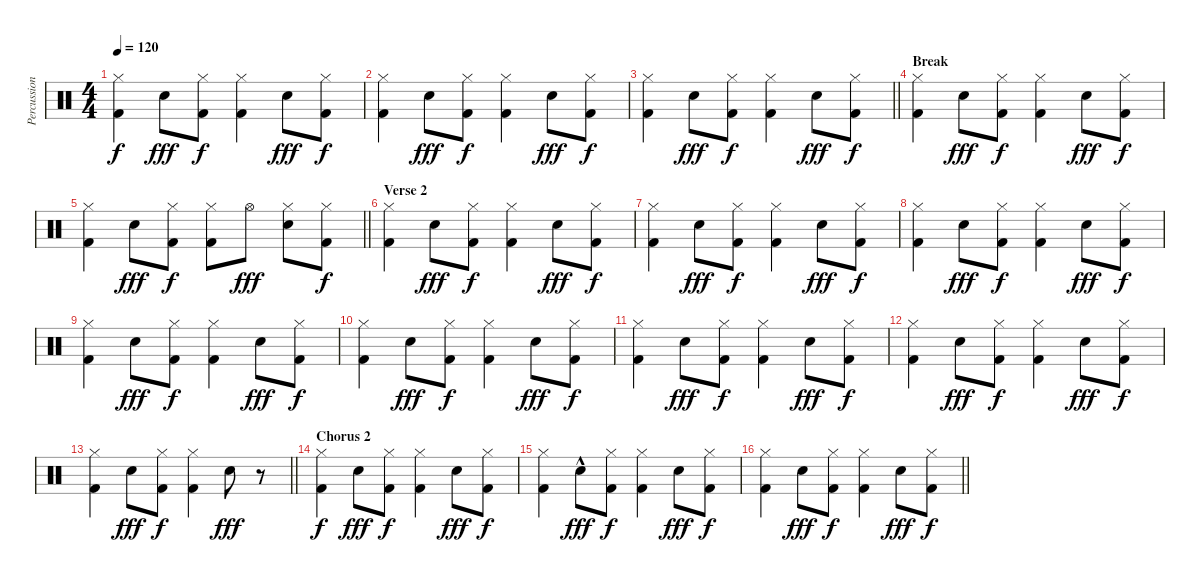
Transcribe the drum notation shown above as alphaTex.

\track ("Percussion" "Percussion") {instrument percussion}
\staff {score}
\articulation defaults
\ts (4 4)
\tempo 120
\clef neutral
\ks c
("Kick (hit) 2" "Hi-Hat (closed)").4{dy f} "Snare (hit) 2".8{dy fff} ("Kick (hit) 2" "Hi-Hat (closed)").8{dy f} ("Kick (hit) 2" "Hi-Hat (closed)").4 "Snare (hit) 2".8{dy fff} ("Kick (hit) 2" "Hi-Hat (closed)").8{dy f} |
("Kick (hit) 2" "Hi-Hat (closed)").4 "Snare (hit) 2".8{dy fff} ("Kick (hit) 2" "Hi-Hat (closed)").8{dy f} ("Kick (hit) 2" "Hi-Hat (closed)").4 "Snare (hit) 2".8{dy fff} ("Kick (hit) 2" "Hi-Hat (closed)").8{dy f} |
\barLineRight lightlight
("Kick (hit) 2" "Hi-Hat (closed)").4 "Snare (hit) 2".8{dy fff} ("Kick (hit) 2" "Hi-Hat (closed)").8{dy f} ("Kick (hit) 2" "Hi-Hat (closed)").4 "Snare (hit) 2".8{dy fff} ("Kick (hit) 2" "Hi-Hat (closed)").8{dy f} |
\section ("" "Break")
("Kick (hit) 2" "Hi-Hat (closed)").4 "Snare (hit) 2".8{dy fff} ("Kick (hit) 2" "Hi-Hat (closed)").8{dy f} ("Kick (hit) 2" "Hi-Hat (closed)").4 "Snare (hit) 2".8{dy fff} ("Kick (hit) 2" "Hi-Hat (closed)").8{dy f} |
\barLineRight lightlight
("Kick (hit) 2" "Hi-Hat (closed)").4 "Snare (hit) 2".8{dy fff} ("Kick (hit) 2" "Hi-Hat (closed)").8{dy f} ("Kick (hit) 2" "Hi-Hat (closed)").8 "Hi-Hat (open)".8{dy fff} ("Snare (hit) 2" "Hi-Hat (closed)").8 ("Kick (hit) 2" "Hi-Hat (closed)").8{dy f} |
\section ("" "Verse 2")
("Kick (hit) 2" "Hi-Hat (closed)").4 "Snare (hit) 2".8{dy fff} ("Kick (hit) 2" "Hi-Hat (closed)").8{dy f} ("Kick (hit) 2" "Hi-Hat (closed)").4 "Snare (hit) 2".8{dy fff} ("Kick (hit) 2" "Hi-Hat (closed)").8{dy f} |
("Kick (hit) 2" "Hi-Hat (closed)").4 "Snare (hit) 2".8{dy fff} ("Kick (hit) 2" "Hi-Hat (closed)").8{dy f} ("Kick (hit) 2" "Hi-Hat (closed)").4 "Snare (hit) 2".8{dy fff} ("Kick (hit) 2" "Hi-Hat (closed)").8{dy f} |
("Kick (hit) 2" "Hi-Hat (closed)").4 "Snare (hit) 2".8{dy fff} ("Kick (hit) 2" "Hi-Hat (closed)").8{dy f} ("Kick (hit) 2" "Hi-Hat (closed)").4 "Snare (hit) 2".8{dy fff} ("Kick (hit) 2" "Hi-Hat (closed)").8{dy f} |
("Kick (hit) 2" "Hi-Hat (closed)").4 "Snare (hit) 2".8{dy fff} ("Kick (hit) 2" "Hi-Hat (closed)").8{dy f} ("Kick (hit) 2" "Hi-Hat (closed)").4 "Snare (hit) 2".8{dy fff} ("Kick (hit) 2" "Hi-Hat (closed)").8{dy f} |
("Kick (hit) 2" "Hi-Hat (closed)").4 "Snare (hit) 2".8{dy fff} ("Kick (hit) 2" "Hi-Hat (closed)").8{dy f} ("Kick (hit) 2" "Hi-Hat (closed)").4 "Snare (hit) 2".8{dy fff} ("Kick (hit) 2" "Hi-Hat (closed)").8{dy f} |
("Kick (hit) 2" "Hi-Hat (closed)").4 "Snare (hit) 2".8{dy fff} ("Kick (hit) 2" "Hi-Hat (closed)").8{dy f} ("Kick (hit) 2" "Hi-Hat (closed)").4 "Snare (hit) 2".8{dy fff} ("Kick (hit) 2" "Hi-Hat (closed)").8{dy f} |
("Kick (hit) 2" "Hi-Hat (closed)").4 "Snare (hit) 2".8{dy fff} ("Kick (hit) 2" "Hi-Hat (closed)").8{dy f} ("Kick (hit) 2" "Hi-Hat (closed)").4 "Snare (hit) 2".8{dy fff} ("Kick (hit) 2" "Hi-Hat (closed)").8{dy f} |
\barLineRight lightlight
("Kick (hit) 2" "Hi-Hat (closed)").4 "Snare (hit) 2".8{dy fff} ("Kick (hit) 2" "Hi-Hat (closed)").8{dy f} ("Kick (hit) 2" "Hi-Hat (closed)").4 "Snare (hit) 2".8{dy fff} r.8 |
\section ("" "Chorus 2")
("Kick (hit) 2" "Hi-Hat (closed)").4{dy f} "Snare (hit) 2".8{dy fff} ("Kick (hit) 2" "Hi-Hat (closed)").8{dy f} ("Kick (hit) 2" "Hi-Hat (closed)").4 "Snare (hit) 2".8{dy fff} ("Kick (hit) 2" "Hi-Hat (closed)").8{dy f} |
("Kick (hit) 2" "Hi-Hat (closed)").4 "Snare (hit) 2"{hac}.8{dy fff} ("Kick (hit) 2" "Hi-Hat (closed)").8{dy f} ("Kick (hit) 2" "Hi-Hat (closed)").4 "Snare (hit) 2".8{dy fff} ("Kick (hit) 2" "Hi-Hat (closed)").8{dy f} |
\barLineRight lightlight
("Kick (hit) 2" "Hi-Hat (closed)").4 "Snare (hit) 2".8{dy fff} ("Kick (hit) 2" "Hi-Hat (closed)").8{dy f} ("Kick (hit) 2" "Hi-Hat (closed)").4 "Snare (hit) 2".8{dy fff} ("Kick (hit) 2" "Hi-Hat (closed)").8{dy f}
